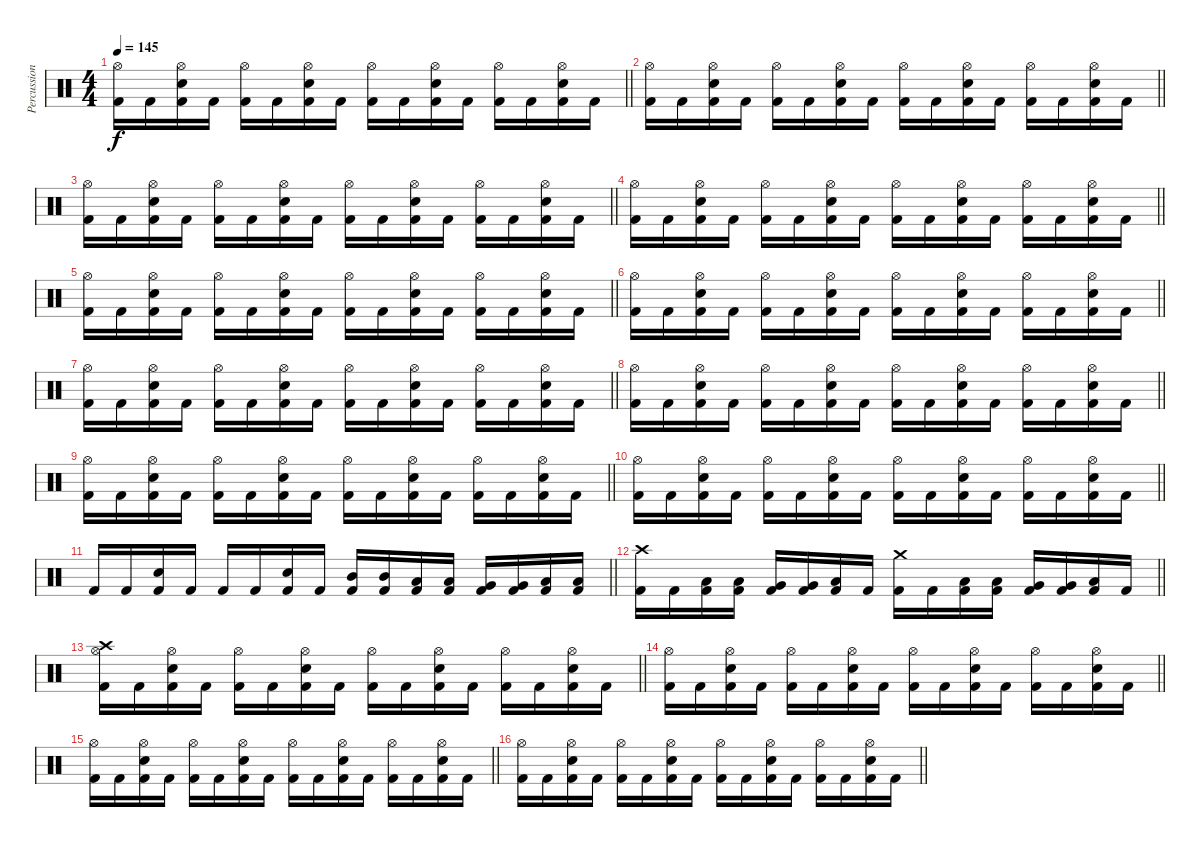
\track ("Percussion" "Percussion") {instrument percussion}
\staff {score}
\articulation defaults
\ts (4 4)
\tempo 145
\clef neutral
\barLineRight lightlight
\ks c
("Hi-Hat (open)" "Kick (hit) 2").16{dy f} "Kick (hit) 2".16 ("Hi-Hat (open)" "Electric Snare (hit)" "Kick (hit) 2").16 "Kick (hit) 2".16 ("Hi-Hat (open)" "Kick (hit) 2").16 "Kick (hit) 2".16 ("Hi-Hat (open)" "Electric Snare (hit)" "Kick (hit) 2").16 "Kick (hit) 2".16 ("Hi-Hat (open)" "Kick (hit) 2").16 "Kick (hit) 2".16 ("Hi-Hat (open)" "Electric Snare (hit)" "Kick (hit) 2").16 "Kick (hit) 2".16 ("Hi-Hat (open)" "Kick (hit) 2").16 "Kick (hit) 2".16 ("Hi-Hat (open)" "Electric Snare (hit)" "Kick (hit) 2").16 "Kick (hit) 2".16 |
\barLineRight lightlight
("Hi-Hat (open)" "Kick (hit) 2").16 "Kick (hit) 2".16 ("Hi-Hat (open)" "Electric Snare (hit)" "Kick (hit) 2").16 "Kick (hit) 2".16 ("Hi-Hat (open)" "Kick (hit) 2").16 "Kick (hit) 2".16 ("Hi-Hat (open)" "Electric Snare (hit)" "Kick (hit) 2").16 "Kick (hit) 2".16 ("Hi-Hat (open)" "Kick (hit) 2").16 "Kick (hit) 2".16 ("Hi-Hat (open)" "Electric Snare (hit)" "Kick (hit) 2").16 "Kick (hit) 2".16 ("Hi-Hat (open)" "Kick (hit) 2").16 "Kick (hit) 2".16 ("Hi-Hat (open)" "Electric Snare (hit)" "Kick (hit) 2").16 "Kick (hit) 2".16 |
\barLineRight lightlight
("Hi-Hat (open)" "Kick (hit) 2").16 "Kick (hit) 2".16 ("Hi-Hat (open)" "Electric Snare (hit)" "Kick (hit) 2").16 "Kick (hit) 2".16 ("Hi-Hat (open)" "Kick (hit) 2").16 "Kick (hit) 2".16 ("Hi-Hat (open)" "Electric Snare (hit)" "Kick (hit) 2").16 "Kick (hit) 2".16 ("Hi-Hat (open)" "Kick (hit) 2").16 "Kick (hit) 2".16 ("Hi-Hat (open)" "Electric Snare (hit)" "Kick (hit) 2").16 "Kick (hit) 2".16 ("Hi-Hat (open)" "Kick (hit) 2").16 "Kick (hit) 2".16 ("Hi-Hat (open)" "Electric Snare (hit)" "Kick (hit) 2").16 "Kick (hit) 2".16 |
\section ("" "")
\barLineRight lightlight
("Hi-Hat (open)" "Kick (hit) 2").16 "Kick (hit) 2".16 ("Hi-Hat (open)" "Electric Snare (hit)" "Kick (hit) 2").16 "Kick (hit) 2".16 ("Hi-Hat (open)" "Kick (hit) 2").16 "Kick (hit) 2".16 ("Hi-Hat (open)" "Electric Snare (hit)" "Kick (hit) 2").16 "Kick (hit) 2".16 ("Hi-Hat (open)" "Kick (hit) 2").16 "Kick (hit) 2".16 ("Hi-Hat (open)" "Electric Snare (hit)" "Kick (hit) 2").16 "Kick (hit) 2".16 ("Hi-Hat (open)" "Kick (hit) 2").16 "Kick (hit) 2".16 ("Hi-Hat (open)" "Electric Snare (hit)" "Kick (hit) 2").16 "Kick (hit) 2".16 |
\barLineRight lightlight
("Hi-Hat (open)" "Kick (hit) 2").16 "Kick (hit) 2".16 ("Hi-Hat (open)" "Electric Snare (hit)" "Kick (hit) 2").16 "Kick (hit) 2".16 ("Hi-Hat (open)" "Kick (hit) 2").16 "Kick (hit) 2".16 ("Hi-Hat (open)" "Electric Snare (hit)" "Kick (hit) 2").16 "Kick (hit) 2".16 ("Hi-Hat (open)" "Kick (hit) 2").16 "Kick (hit) 2".16 ("Hi-Hat (open)" "Electric Snare (hit)" "Kick (hit) 2").16 "Kick (hit) 2".16 ("Hi-Hat (open)" "Kick (hit) 2").16 "Kick (hit) 2".16 ("Hi-Hat (open)" "Electric Snare (hit)" "Kick (hit) 2").16 "Kick (hit) 2".16 |
\barLineRight lightlight
("Hi-Hat (open)" "Kick (hit) 2").16 "Kick (hit) 2".16 ("Hi-Hat (open)" "Electric Snare (hit)" "Kick (hit) 2").16 "Kick (hit) 2".16 ("Hi-Hat (open)" "Kick (hit) 2").16 "Kick (hit) 2".16 ("Hi-Hat (open)" "Electric Snare (hit)" "Kick (hit) 2").16 "Kick (hit) 2".16 ("Hi-Hat (open)" "Kick (hit) 2").16 "Kick (hit) 2".16 ("Hi-Hat (open)" "Electric Snare (hit)" "Kick (hit) 2").16 "Kick (hit) 2".16 ("Hi-Hat (open)" "Kick (hit) 2").16 "Kick (hit) 2".16 ("Hi-Hat (open)" "Electric Snare (hit)" "Kick (hit) 2").16 "Kick (hit) 2".16 |
\barLineRight lightlight
("Hi-Hat (open)" "Kick (hit) 2").16 "Kick (hit) 2".16 ("Hi-Hat (open)" "Electric Snare (hit)" "Kick (hit) 2").16 "Kick (hit) 2".16 ("Hi-Hat (open)" "Kick (hit) 2").16 "Kick (hit) 2".16 ("Hi-Hat (open)" "Electric Snare (hit)" "Kick (hit) 2").16 "Kick (hit) 2".16 ("Hi-Hat (open)" "Kick (hit) 2").16 "Kick (hit) 2".16 ("Hi-Hat (open)" "Electric Snare (hit)" "Kick (hit) 2").16 "Kick (hit) 2".16 ("Hi-Hat (open)" "Kick (hit) 2").16 "Kick (hit) 2".16 ("Hi-Hat (open)" "Electric Snare (hit)" "Kick (hit) 2").16 "Kick (hit) 2".16 |
\barLineRight lightlight
("Hi-Hat (open)" "Kick (hit) 2").16 "Kick (hit) 2".16 ("Hi-Hat (open)" "Electric Snare (hit)" "Kick (hit) 2").16 "Kick (hit) 2".16 ("Hi-Hat (open)" "Kick (hit) 2").16 "Kick (hit) 2".16 ("Hi-Hat (open)" "Electric Snare (hit)" "Kick (hit) 2").16 "Kick (hit) 2".16 ("Hi-Hat (open)" "Kick (hit) 2").16 "Kick (hit) 2".16 ("Hi-Hat (open)" "Electric Snare (hit)" "Kick (hit) 2").16 "Kick (hit) 2".16 ("Hi-Hat (open)" "Kick (hit) 2").16 "Kick (hit) 2".16 ("Hi-Hat (open)" "Electric Snare (hit)" "Kick (hit) 2").16 "Kick (hit) 2".16 |
\barLineRight lightlight
("Hi-Hat (open)" "Kick (hit) 2").16 "Kick (hit) 2".16 ("Hi-Hat (open)" "Electric Snare (hit)" "Kick (hit) 2").16 "Kick (hit) 2".16 ("Hi-Hat (open)" "Kick (hit) 2").16 "Kick (hit) 2".16 ("Hi-Hat (open)" "Electric Snare (hit)" "Kick (hit) 2").16 "Kick (hit) 2".16 ("Hi-Hat (open)" "Kick (hit) 2").16 "Kick (hit) 2".16 ("Hi-Hat (open)" "Electric Snare (hit)" "Kick (hit) 2").16 "Kick (hit) 2".16 ("Hi-Hat (open)" "Kick (hit) 2").16 "Kick (hit) 2".16 ("Hi-Hat (open)" "Electric Snare (hit)" "Kick (hit) 2").16 "Kick (hit) 2".16 |
\barLineRight lightlight
("Hi-Hat (open)" "Kick (hit) 2").16 "Kick (hit) 2".16 ("Hi-Hat (open)" "Electric Snare (hit)" "Kick (hit) 2").16 "Kick (hit) 2".16 ("Hi-Hat (open)" "Kick (hit) 2").16 "Kick (hit) 2".16 ("Hi-Hat (open)" "Electric Snare (hit)" "Kick (hit) 2").16 "Kick (hit) 2".16 ("Hi-Hat (open)" "Kick (hit) 2").16 "Kick (hit) 2".16 ("Hi-Hat (open)" "Electric Snare (hit)" "Kick (hit) 2").16 "Kick (hit) 2".16 ("Hi-Hat (open)" "Kick (hit) 2").16 "Kick (hit) 2".16 ("Hi-Hat (open)" "Electric Snare (hit)" "Kick (hit) 2").16 "Kick (hit) 2".16 |
\barLineRight lightlight "Kick (hit) 2".16 "Kick (hit) 2".16
("Electric Snare (hit)" "Kick (hit) 2").16 "Kick (hit) 2".16 "Kick (hit) 2".16 "Kick (hit) 2".16 ("Electric Snare (hit)" "Kick (hit) 2").16 "Kick (hit) 2".16 ("Mid Tom (hit)" "Kick (hit) 2").16 ("Mid Tom (hit)" "Kick (hit) 2").16 ("Low Tom (hit)" "Kick (hit) 2").16 ("Low Tom (hit)" "Kick (hit) 2").16 ("Very Low Tom (hit)" "Kick (hit) 2").16 ("Very Low Tom (hit)" "Kick (hit) 2").16 ("Low Floor Tom (hit)" "Kick (hit) 2").16 ("Low Floor Tom (hit)" "Kick (hit) 2").16 |
\barLineRight lightlight
("Crash high (hit)" "Kick (hit) 2").16 "Kick (hit) 2".16 ("Low Tom (hit)" "Kick (hit) 2").16 ("Low Tom (hit)" "Kick (hit) 2").16 ("Very Low Tom (hit)" "Kick (hit) 2").16 ("Very Low Tom (hit)" "Kick (hit) 2").16 ("Low Floor Tom (hit)" "Kick (hit) 2").16 "Kick (hit) 2".16 ("Crash medium (hit)" "Kick (hit) 2").16 "Kick (hit) 2".16 ("Low Tom (hit)" "Kick (hit) 2").16 ("Low Tom (hit)" "Kick (hit) 2").16 ("Very Low Tom (hit)" "Kick (hit) 2").16 ("Very Low Tom (hit)" "Kick (hit) 2").16 ("Low Floor Tom (hit)" "Kick (hit) 2").16 "Kick (hit) 2".16 |
\section ("" "")
\barLineRight lightlight
("Crash high (hit)" "Hi-Hat (open)" "Kick (hit) 2").16 "Kick (hit) 2".16 ("Hi-Hat (open)" "Electric Snare (hit)" "Kick (hit) 2").16 "Kick (hit) 2".16 ("Hi-Hat (open)" "Kick (hit) 2").16 "Kick (hit) 2".16 ("Hi-Hat (open)" "Electric Snare (hit)" "Kick (hit) 2").16 "Kick (hit) 2".16 ("Hi-Hat (open)" "Kick (hit) 2").16 "Kick (hit) 2".16 ("Hi-Hat (open)" "Electric Snare (hit)" "Kick (hit) 2").16 "Kick (hit) 2".16 ("Hi-Hat (open)" "Kick (hit) 2").16 "Kick (hit) 2".16 ("Hi-Hat (open)" "Electric Snare (hit)" "Kick (hit) 2").16 "Kick (hit) 2".16 |
\barLineRight lightlight
("Hi-Hat (open)" "Kick (hit) 2").16 "Kick (hit) 2".16 ("Hi-Hat (open)" "Electric Snare (hit)" "Kick (hit) 2").16 "Kick (hit) 2".16 ("Hi-Hat (open)" "Kick (hit) 2").16 "Kick (hit) 2".16 ("Hi-Hat (open)" "Electric Snare (hit)" "Kick (hit) 2").16 "Kick (hit) 2".16 ("Hi-Hat (open)" "Kick (hit) 2").16 "Kick (hit) 2".16 ("Hi-Hat (open)" "Electric Snare (hit)" "Kick (hit) 2").16 "Kick (hit) 2".16 ("Hi-Hat (open)" "Kick (hit) 2").16 "Kick (hit) 2".16 ("Hi-Hat (open)" "Electric Snare (hit)" "Kick (hit) 2").16 "Kick (hit) 2".16 |
\barLineRight lightlight
("Hi-Hat (open)" "Kick (hit) 2").16 "Kick (hit) 2".16 ("Hi-Hat (open)" "Electric Snare (hit)" "Kick (hit) 2").16 "Kick (hit) 2".16 ("Hi-Hat (open)" "Kick (hit) 2").16 "Kick (hit) 2".16 ("Hi-Hat (open)" "Electric Snare (hit)" "Kick (hit) 2").16 "Kick (hit) 2".16 ("Hi-Hat (open)" "Kick (hit) 2").16 "Kick (hit) 2".16 ("Hi-Hat (open)" "Electric Snare (hit)" "Kick (hit) 2").16 "Kick (hit) 2".16 ("Hi-Hat (open)" "Kick (hit) 2").16 "Kick (hit) 2".16 ("Hi-Hat (open)" "Electric Snare (hit)" "Kick (hit) 2").16 "Kick (hit) 2".16 |
\barLineRight lightlight
("Hi-Hat (open)" "Kick (hit) 2").16 "Kick (hit) 2".16 ("Hi-Hat (open)" "Electric Snare (hit)" "Kick (hit) 2").16 "Kick (hit) 2".16 ("Hi-Hat (open)" "Kick (hit) 2").16 "Kick (hit) 2".16 ("Hi-Hat (open)" "Electric Snare (hit)" "Kick (hit) 2").16 "Kick (hit) 2".16 ("Hi-Hat (open)" "Kick (hit) 2").16 "Kick (hit) 2".16 ("Hi-Hat (open)" "Electric Snare (hit)" "Kick (hit) 2").16 "Kick (hit) 2".16 ("Hi-Hat (open)" "Kick (hit) 2").16 "Kick (hit) 2".16 ("Hi-Hat (open)" "Electric Snare (hit)" "Kick (hit) 2").16 "Kick (hit) 2".16
